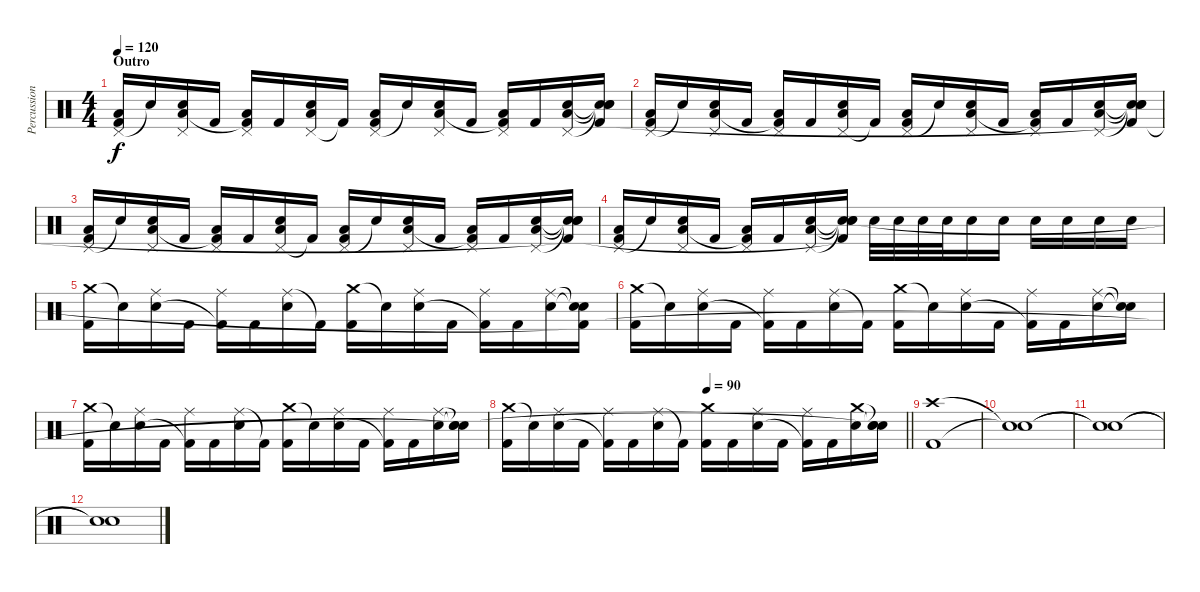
\track ("Percussion" "Percussion") {instrument percussion}
\staff {score}
\articulation defaults
\ts (4 4)
\section ("" "Outro")
\tempo 120
\clef neutral
\ks c
("Pedal Hi-Hat (hit)" "Low Tom (hit)" "Kick (hit) 2").16{dy f} "Snare (hit)"{t}.16 ("Pedal Hi-Hat (hit)" "Electric Snare (hit)" "Low Tom (hit)").16 "Kick (hit) 2".16 ("Pedal Hi-Hat (hit)" "Low Tom (hit)" "Kick (hit) 2"{t}).16 "Kick (hit) 2".16 ("Pedal Hi-Hat (hit)" "Electric Snare (hit)" "Low Tom (hit)").16 "Kick (hit) 2"{t}.16 ("Pedal Hi-Hat (hit)" "Low Tom (hit)" "Kick (hit) 2").16 "Snare (hit)"{t}.16 ("Pedal Hi-Hat (hit)" "Electric Snare (hit)" "Low Tom (hit)").16 "Kick (hit) 2".16 ("Pedal Hi-Hat (hit)" "Low Tom (hit)" "Kick (hit) 2"{t}).16 "Kick (hit) 2".16 ("Pedal Hi-Hat (hit)" "Electric Snare (hit)" "Low Tom (hit)").16 ("Snare (hit)"{t} "Snare (hit)"{t} "Snare (hit)"{t} "Kick (hit) 2").16 |
("Pedal Hi-Hat (hit)" "Low Tom (hit)" "Kick (hit) 2").16 "Snare (hit)"{t}.16 ("Pedal Hi-Hat (hit)" "Electric Snare (hit)" "Low Tom (hit)").16 "Kick (hit) 2".16 ("Pedal Hi-Hat (hit)" "Low Tom (hit)" "Kick (hit) 2"{t}).16 "Kick (hit) 2".16 ("Pedal Hi-Hat (hit)" "Electric Snare (hit)" "Low Tom (hit)").16 "Kick (hit) 2"{t}.16 ("Pedal Hi-Hat (hit)" "Low Tom (hit)" "Kick (hit) 2").16 "Snare (hit)"{t}.16 ("Pedal Hi-Hat (hit)" "Electric Snare (hit)" "Low Tom (hit)").16 "Kick (hit) 2".16 ("Pedal Hi-Hat (hit)" "Low Tom (hit)" "Kick (hit) 2"{t}).16 "Kick (hit) 2".16 ("Pedal Hi-Hat (hit)" "Electric Snare (hit)" "Low Tom (hit)").16 ("Snare (hit)"{t} "Snare (hit)"{t} "Snare (hit)"{t} "Kick (hit) 2"{t}).16 |
("Pedal Hi-Hat (hit)" "Low Tom (hit)" "Kick (hit) 2").16 "Snare (hit)"{t}.16 ("Pedal Hi-Hat (hit)" "Electric Snare (hit)" "Low Tom (hit)").16 "Kick (hit) 2".16 ("Pedal Hi-Hat (hit)" "Low Tom (hit)" "Kick (hit) 2"{t}).16 "Kick (hit) 2".16 ("Pedal Hi-Hat (hit)" "Electric Snare (hit)" "Low Tom (hit)").16 "Kick (hit) 2"{t}.16 ("Pedal Hi-Hat (hit)" "Low Tom (hit)" "Kick (hit) 2").16 "Snare (hit)"{t}.16 ("Pedal Hi-Hat (hit)" "Electric Snare (hit)" "Low Tom (hit)").16 "Kick (hit) 2".16 ("Pedal Hi-Hat (hit)" "Low Tom (hit)" "Kick (hit) 2"{t}).16 "Kick (hit) 2".16 ("Pedal Hi-Hat (hit)" "Electric Snare (hit)" "Low Tom (hit)").16 ("Snare (hit)"{t} "Snare (hit)"{t} "Snare (hit)"{t} "Kick (hit) 2"{t}).16 |
("Pedal Hi-Hat (hit)" "Low Tom (hit)" "Kick (hit) 2").16 "Snare (hit)"{t}.16 ("Pedal Hi-Hat (hit)" "Electric Snare (hit)" "Low Tom (hit)").16 "Kick (hit) 2".16 ("Pedal Hi-Hat (hit)" "Low Tom (hit)" "Kick (hit) 2"{t}).16 "Kick (hit) 2".16 ("Pedal Hi-Hat (hit)" "Electric Snare (hit)" "Low Tom (hit)").16 ("Snare (hit)"{t} "Snare (hit)"{t} "Snare (hit)"{t} "Kick (hit) 2"{t}).16 "Electric Snare (hit)".32 "Electric Snare (hit)".32 "Electric Snare (hit)".32 "Electric Snare (hit)".32 "Electric Snare (hit)".16 "Electric Snare (hit)".16 "Electric Snare (hit)".16 "Electric Snare (hit)".16 "Electric Snare (hit)".16 "Electric Snare (hit)".16 |
("Crash medium (hit)" "Kick (hit) 2").16 "Snare (hit)"{t}.16 ("Ride (middle)" "Electric Snare (hit)").16 "Kick (hit) 2".16 ("Ride (middle)" "Kick (hit) 2"{t}).16 "Kick (hit) 2".16 ("Ride (middle)" "Electric Snare (hit)").16 "Kick (hit) 2"{t}.16 ("Crash medium (hit)" "Kick (hit) 2").16 "Snare (hit)"{t}.16 ("Ride (middle)" "Electric Snare (hit)").16 "Kick (hit) 2".16 ("Ride (middle)" "Kick (hit) 2"{t}).16 "Kick (hit) 2".16 ("Ride (middle)" "Electric Snare (hit)").16 ("Snare (hit)"{t} "Snare (hit)"{t} "Kick (hit) 2"{t}).16 |
("Crash medium (hit)" "Kick (hit) 2").16 "Snare (hit)"{t}.16 ("Ride (middle)" "Electric Snare (hit)").16 "Kick (hit) 2".16 ("Ride (middle)" "Kick (hit) 2"{t}).16 "Kick (hit) 2".16 ("Ride (middle)" "Electric Snare (hit)").16 "Kick (hit) 2"{t}.16 ("Crash medium (hit)" "Kick (hit) 2").16 "Snare (hit)"{t}.16 ("Ride (middle)" "Electric Snare (hit)").16 "Kick (hit) 2".16 ("Ride (middle)" "Kick (hit) 2"{t}).16 "Kick (hit) 2".16 ("Ride (middle)" "Electric Snare (hit)").16 ("Snare (hit)"{t} "Snare (hit)"{t}).16 |
("Crash medium (hit)" "Kick (hit) 2").16 "Snare (hit)"{t}.16 ("Ride (middle)" "Electric Snare (hit)").16 "Kick (hit) 2".16 ("Ride (middle)" "Kick (hit) 2"{t}).16 "Kick (hit) 2".16 ("Ride (middle)" "Electric Snare (hit)").16 "Kick (hit) 2"{t}.16 ("Crash medium (hit)" "Kick (hit) 2").16 "Snare (hit)"{t}.16 ("Ride (middle)" "Electric Snare (hit)").16 "Kick (hit) 2".16 ("Ride (middle)" "Kick (hit) 2"{t}).16 "Kick (hit) 2".16 ("Ride (middle)" "Electric Snare (hit)").16 ("Snare (hit)"{t} "Snare (hit)"{t} "Snare (hit)"{t}).16 |
\tempo (90 0.5)
\barLineRight lightlight
("Crash medium (hit)" "Kick (hit) 2").16 "Snare (hit)"{t}.16 ("Ride (middle)" "Electric Snare (hit)").16 "Kick (hit) 2".16 ("Ride (middle)" "Kick (hit) 2"{t}).16 "Kick (hit) 2".16 ("Ride (middle)" "Electric Snare (hit)").16 "Kick (hit) 2"{t}.16 ("Crash medium (hit)" "Kick (hit) 2").16 "Kick (hit) 2".16 ("Ride (middle)" "Electric Snare (hit)").16 "Kick (hit) 2".16 ("Ride (middle)" "Kick (hit) 2"{t}).16 "Kick (hit) 2".16 ("Crash medium (hit)" "Electric Snare (hit)").16 ("Snare (hit)"{t} "Snare (hit)"{t} "Snare (hit)"{t}).16 |
("Crash high (hit)" "Kick (hit) 2").1 |
("Snare (hit)"{t} "Snare (hit)"{t}).1 |
("Snare (hit)"{t} "Snare (hit)"{t}).1 |
("Snare (hit)"{t} "Snare (hit)"{t}).1
